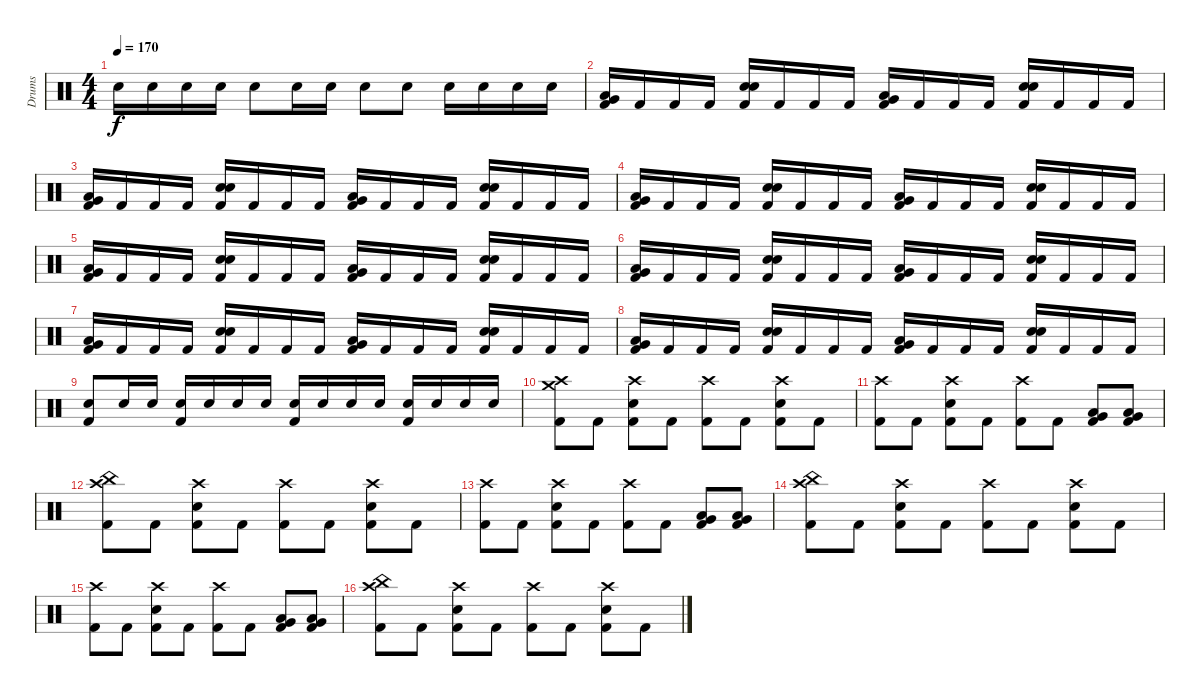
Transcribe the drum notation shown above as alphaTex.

\track ("Drums" "Drums") {instrument percussion}
\staff {score}
\articulation defaults
\ts (4 4)
\tempo 170
\clef neutral
\ks c "Snare (hit) 2".16{dy f} "Snare (hit) 2".16 "Snare (hit) 2".16 "Snare (hit) 2".16 "Snare (hit) 2".8 "Snare (hit) 2".16 "Snare (hit) 2".16 "Snare (hit) 2".8 "Snare (hit) 2".8 "Snare (hit) 2".16 "Snare (hit) 2".16 "Snare (hit) 2".16 "Snare (hit) 2".16
|
("Low Tom (hit)" "Very Low Tom (hit)" "Kick (hit) 2").16 "Kick (hit) 2".16 "Kick (hit) 2".16 "Kick (hit) 2".16 ("Snare (hit) 2" "Snare (hit) 2" "Kick (hit) 2").16 "Kick (hit) 2".16 "Kick (hit) 2".16 "Kick (hit) 2".16 ("Low Tom (hit)" "Very Low Tom (hit)" "Kick (hit) 2").16 "Kick (hit) 2".16 "Kick (hit) 2".16 "Kick (hit) 2".16 ("Snare (hit) 2" "Snare (hit) 2" "Kick (hit) 2").16 "Kick (hit) 2".16 "Kick (hit) 2".16 "Kick (hit) 2".16 |
("Low Tom (hit)" "Very Low Tom (hit)" "Kick (hit) 2").16 "Kick (hit) 2".16 "Kick (hit) 2".16 "Kick (hit) 2".16 ("Snare (hit) 2" "Snare (hit) 2" "Kick (hit) 2").16 "Kick (hit) 2".16 "Kick (hit) 2".16 "Kick (hit) 2".16 ("Low Tom (hit)" "Very Low Tom (hit)" "Kick (hit) 2").16 "Kick (hit) 2".16 "Kick (hit) 2".16 "Kick (hit) 2".16 ("Snare (hit) 2" "Snare (hit) 2" "Kick (hit) 2").16 "Kick (hit) 2".16 "Kick (hit) 2".16 "Kick (hit) 2".16 |
("Low Tom (hit)" "Very Low Tom (hit)" "Kick (hit) 2").16 "Kick (hit) 2".16 "Kick (hit) 2".16 "Kick (hit) 2".16 ("Snare (hit) 2" "Snare (hit) 2" "Kick (hit) 2").16 "Kick (hit) 2".16 "Kick (hit) 2".16 "Kick (hit) 2".16 ("Low Tom (hit)" "Very Low Tom (hit)" "Kick (hit) 2").16 "Kick (hit) 2".16 "Kick (hit) 2".16 "Kick (hit) 2".16 ("Snare (hit) 2" "Snare (hit) 2" "Kick (hit) 2").16 "Kick (hit) 2".16 "Kick (hit) 2".16 "Kick (hit) 2".16 |
("Low Tom (hit)" "Very Low Tom (hit)" "Kick (hit) 2").16 "Kick (hit) 2".16 "Kick (hit) 2".16 "Kick (hit) 2".16 ("Snare (hit) 2" "Snare (hit) 2" "Kick (hit) 2").16 "Kick (hit) 2".16 "Kick (hit) 2".16 "Kick (hit) 2".16 ("Low Tom (hit)" "Very Low Tom (hit)" "Kick (hit) 2").16 "Kick (hit) 2".16 "Kick (hit) 2".16 "Kick (hit) 2".16 ("Snare (hit) 2" "Snare (hit) 2" "Kick (hit) 2").16 "Kick (hit) 2".16 "Kick (hit) 2".16 "Kick (hit) 2".16 |
("Low Tom (hit)" "Very Low Tom (hit)" "Kick (hit) 2").16 "Kick (hit) 2".16 "Kick (hit) 2".16 "Kick (hit) 2".16 ("Snare (hit) 2" "Snare (hit) 2" "Kick (hit) 2").16 "Kick (hit) 2".16 "Kick (hit) 2".16 "Kick (hit) 2".16 ("Low Tom (hit)" "Very Low Tom (hit)" "Kick (hit) 2").16 "Kick (hit) 2".16 "Kick (hit) 2".16 "Kick (hit) 2".16 ("Snare (hit) 2" "Snare (hit) 2" "Kick (hit) 2").16 "Kick (hit) 2".16 "Kick (hit) 2".16 "Kick (hit) 2".16 |
("Low Tom (hit)" "Very Low Tom (hit)" "Kick (hit) 2").16 "Kick (hit) 2".16 "Kick (hit) 2".16 "Kick (hit) 2".16 ("Snare (hit) 2" "Snare (hit) 2" "Kick (hit) 2").16 "Kick (hit) 2".16 "Kick (hit) 2".16 "Kick (hit) 2".16 ("Low Tom (hit)" "Very Low Tom (hit)" "Kick (hit) 2").16 "Kick (hit) 2".16 "Kick (hit) 2".16 "Kick (hit) 2".16 ("Snare (hit) 2" "Snare (hit) 2" "Kick (hit) 2").16 "Kick (hit) 2".16 "Kick (hit) 2".16 "Kick (hit) 2".16 |
("Low Tom (hit)" "Very Low Tom (hit)" "Kick (hit) 2").16 "Kick (hit) 2".16 "Kick (hit) 2".16 "Kick (hit) 2".16 ("Snare (hit) 2" "Snare (hit) 2" "Kick (hit) 2").16 "Kick (hit) 2".16 "Kick (hit) 2".16 "Kick (hit) 2".16 ("Low Tom (hit)" "Very Low Tom (hit)" "Kick (hit) 2").16 "Kick (hit) 2".16 "Kick (hit) 2".16 "Kick (hit) 2".16 ("Snare (hit) 2" "Snare (hit) 2" "Kick (hit) 2").16 "Kick (hit) 2".16 "Kick (hit) 2".16 "Kick (hit) 2".16 |
("Snare (hit) 2" "Kick (hit) 2").8 "Snare (hit) 2".16 "Snare (hit) 2".16 ("Snare (hit) 2" "Kick (hit) 2").16 "Snare (hit) 2".16 "Snare (hit) 2".16 "Snare (hit) 2".16 ("Snare (hit) 2" "Kick (hit) 2").16 "Snare (hit) 2".16 "Snare (hit) 2".16 "Snare (hit) 2".16 ("Snare (hit) 2" "Kick (hit) 2").16 "Snare (hit) 2".16 "Snare (hit) 2".16 "Snare (hit) 2".16 |
("Crash medium (hit)" "Crash high (hit)" "Kick (hit) 2").8 "Kick (hit) 2".8 ("Crash high (hit)" "Snare (hit) 2" "Kick (hit) 2").8 "Kick (hit) 2".8 ("Crash high (hit)" "Kick (hit) 2").8 "Kick (hit) 2".8 ("Crash high (hit)" "Snare (hit) 2" "Kick (hit) 2").8 "Kick (hit) 2".8 |
("Crash high (hit)" "Kick (hit) 2").8 "Kick (hit) 2".8 ("Crash high (hit)" "Snare (hit) 2" "Kick (hit) 2").8 "Kick (hit) 2".8 ("Crash high (hit)" "Kick (hit) 2").8 "Kick (hit) 2".8 ("Low Tom (hit)" "Very Low Tom (hit)" "Kick (hit) 2").8 ("Low Tom (hit)" "Very Low Tom (hit)" "Kick (hit) 2").8 |
("China (hit)" "Crash high (hit)" "Kick (hit) 2").8 "Kick (hit) 2".8 ("Crash high (hit)" "Snare (hit) 2" "Kick (hit) 2").8 "Kick (hit) 2".8 ("Crash high (hit)" "Kick (hit) 2").8 "Kick (hit) 2".8 ("Crash high (hit)" "Snare (hit) 2" "Kick (hit) 2").8 "Kick (hit) 2".8 |
("Crash high (hit)" "Kick (hit) 2").8 "Kick (hit) 2".8 ("Crash high (hit)" "Snare (hit) 2" "Kick (hit) 2").8 "Kick (hit) 2".8 ("Crash high (hit)" "Kick (hit) 2").8 "Kick (hit) 2".8 ("Low Tom (hit)" "Very Low Tom (hit)" "Kick (hit) 2").8 ("Low Tom (hit)" "Very Low Tom (hit)" "Kick (hit) 2").8 |
("China (hit)" "Crash high (hit)" "Kick (hit) 2").8 "Kick (hit) 2".8 ("Crash high (hit)" "Snare (hit) 2" "Kick (hit) 2").8 "Kick (hit) 2".8 ("Crash high (hit)" "Kick (hit) 2").8 "Kick (hit) 2".8 ("Crash high (hit)" "Snare (hit) 2" "Kick (hit) 2").8 "Kick (hit) 2".8 |
("Crash high (hit)" "Kick (hit) 2").8 "Kick (hit) 2".8 ("Crash high (hit)" "Snare (hit) 2" "Kick (hit) 2").8 "Kick (hit) 2".8 ("Crash high (hit)" "Kick (hit) 2").8 "Kick (hit) 2".8 ("Low Tom (hit)" "Very Low Tom (hit)" "Kick (hit) 2").8 ("Low Tom (hit)" "Very Low Tom (hit)" "Kick (hit) 2").8 |
("China (hit)" "Crash high (hit)" "Kick (hit) 2").8 "Kick (hit) 2".8 ("Crash high (hit)" "Snare (hit) 2" "Kick (hit) 2").8 "Kick (hit) 2".8 ("Crash high (hit)" "Kick (hit) 2").8 "Kick (hit) 2".8 ("Crash high (hit)" "Snare (hit) 2" "Kick (hit) 2").8 "Kick (hit) 2".8
